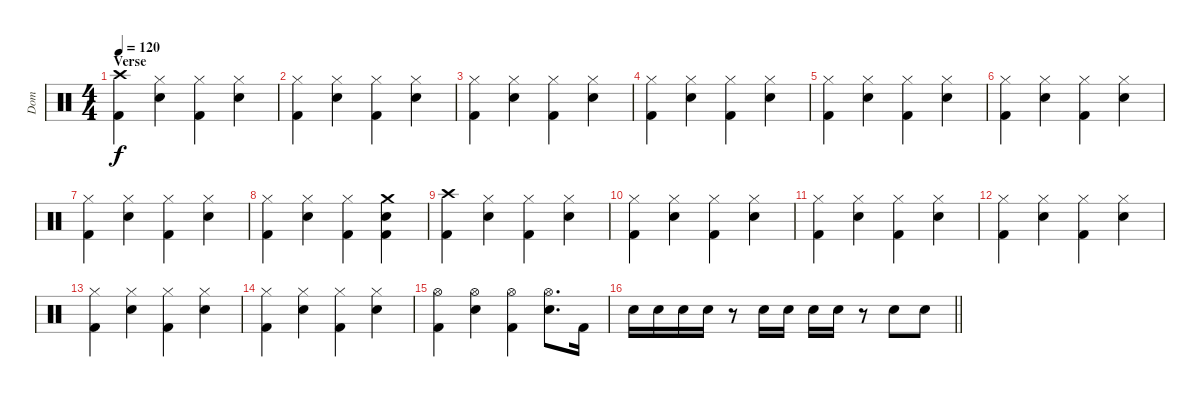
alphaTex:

\track ("Dom" "Dom") {instrument percussion}
\staff {score}
\articulation defaults
\ts (4 4)
\section ("" "Verse")
\tempo 120
\clef neutral
\ks c
("Crash high (hit)" "Kick (hit) 2").4{dy f} ("Hi-Hat (closed)" "Electric Snare (hit)").4 ("Hi-Hat (closed)" "Kick (hit) 2").4 ("Hi-Hat (closed)" "Electric Snare (hit)").4 |
("Hi-Hat (closed)" "Kick (hit) 2").4 ("Hi-Hat (closed)" "Electric Snare (hit)").4 ("Hi-Hat (closed)" "Kick (hit) 2").4 ("Hi-Hat (closed)" "Electric Snare (hit)").4 |
("Hi-Hat (closed)" "Kick (hit) 2").4 ("Hi-Hat (closed)" "Electric Snare (hit)").4 ("Hi-Hat (closed)" "Kick (hit) 2").4 ("Hi-Hat (closed)" "Electric Snare (hit)").4 |
("Hi-Hat (closed)" "Kick (hit) 2").4 ("Hi-Hat (closed)" "Electric Snare (hit)").4 ("Hi-Hat (closed)" "Kick (hit) 2").4 ("Hi-Hat (closed)" "Electric Snare (hit)").4 |
("Hi-Hat (closed)" "Kick (hit) 2").4 ("Hi-Hat (closed)" "Electric Snare (hit)").4 ("Hi-Hat (closed)" "Kick (hit) 2").4 ("Hi-Hat (closed)" "Electric Snare (hit)").4 |
("Hi-Hat (closed)" "Kick (hit) 2").4 ("Hi-Hat (closed)" "Electric Snare (hit)").4 ("Hi-Hat (closed)" "Kick (hit) 2").4 ("Hi-Hat (closed)" "Electric Snare (hit)").4 |
("Hi-Hat (closed)" "Kick (hit) 2").4 ("Hi-Hat (closed)" "Electric Snare (hit)").4 ("Hi-Hat (closed)" "Kick (hit) 2").4 ("Hi-Hat (closed)" "Electric Snare (hit)").4 |
("Hi-Hat (closed)" "Kick (hit) 2").4 ("Hi-Hat (closed)" "Electric Snare (hit)").4 ("Hi-Hat (closed)" "Kick (hit) 2").4 ("Crash medium (hit)" "Electric Snare (hit)" "Kick (hit) 2").4 |
("Crash high (hit)" "Kick (hit) 2").4 ("Hi-Hat (closed)" "Electric Snare (hit)").4 ("Hi-Hat (closed)" "Kick (hit) 2").4 ("Hi-Hat (closed)" "Electric Snare (hit)").4 |
("Hi-Hat (closed)" "Kick (hit) 2").4 ("Hi-Hat (closed)" "Electric Snare (hit)").4 ("Hi-Hat (closed)" "Kick (hit) 2").4 ("Hi-Hat (closed)" "Electric Snare (hit)").4 |
("Hi-Hat (closed)" "Kick (hit) 2").4 ("Hi-Hat (closed)" "Electric Snare (hit)").4 ("Hi-Hat (closed)" "Kick (hit) 2").4 ("Hi-Hat (closed)" "Electric Snare (hit)").4 |
("Hi-Hat (closed)" "Kick (hit) 2").4 ("Hi-Hat (closed)" "Electric Snare (hit)").4 ("Hi-Hat (closed)" "Kick (hit) 2").4 ("Hi-Hat (closed)" "Electric Snare (hit)").4 |
("Hi-Hat (closed)" "Kick (hit) 2").4 ("Hi-Hat (closed)" "Electric Snare (hit)").4 ("Hi-Hat (closed)" "Kick (hit) 2").4 ("Hi-Hat (closed)" "Electric Snare (hit)").4 |
("Hi-Hat (closed)" "Kick (hit) 2").4 ("Hi-Hat (closed)" "Electric Snare (hit)").4 ("Hi-Hat (closed)" "Kick (hit) 2").4 ("Hi-Hat (closed)" "Electric Snare (hit)").4 |
("Hi-Hat (open)" "Kick (hit) 2").4 ("Hi-Hat (open)" "Electric Snare (hit)").4 ("Hi-Hat (open)" "Kick (hit) 2").4 ("Hi-Hat (open)" "Electric Snare (hit)").8{d} "Kick (hit) 2".16 |
\barLineRight lightlight "Electric Snare (hit)".16 "Electric Snare (hit)".16 "Electric Snare (hit)".16 "Electric Snare (hit)".16
r.8 "Electric Snare (hit)".16 "Electric Snare (hit)".16 "Electric Snare (hit)".16 "Electric Snare (hit)".16 r.8 "Electric Snare (hit)".8 "Electric Snare (hit)".8
